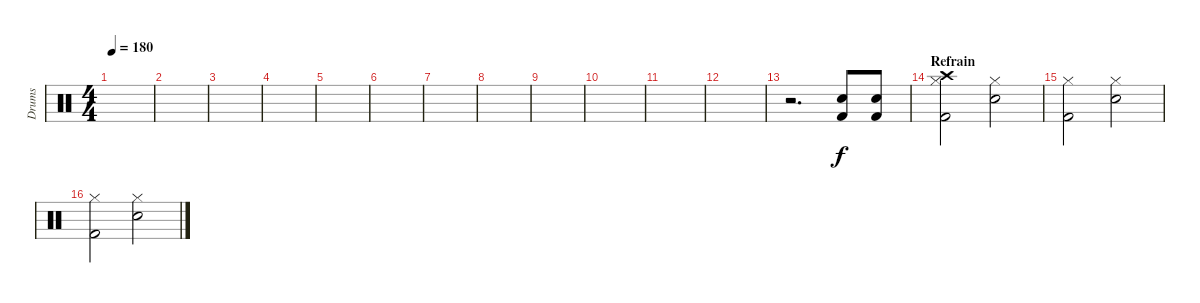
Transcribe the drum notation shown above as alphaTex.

\track ("Drums" "Drums") {instrument percussion}
\staff {score}
\articulation defaults
\ts (4 4)
\tempo 180
\clef neutral
\ks c
|
|
|
|
|
|
|
|
|
|
|
|
r.2{d} ("Snare (hit) 2" "Kick (hit) 2").8 ("Snare (hit) 2" "Kick (hit) 2").8 |
\section ("" "Refrain")
("Crash high (hit)" "Hi-Hat (closed)" "Kick (hit) 2").2 ("Hi-Hat (closed)" "Snare (hit) 2").2 |
("Hi-Hat (closed)" "Kick (hit) 2").2 ("Hi-Hat (closed)" "Snare (hit) 2").2 |
("Hi-Hat (closed)" "Kick (hit) 2").2 ("Hi-Hat (closed)" "Snare (hit) 2").2
